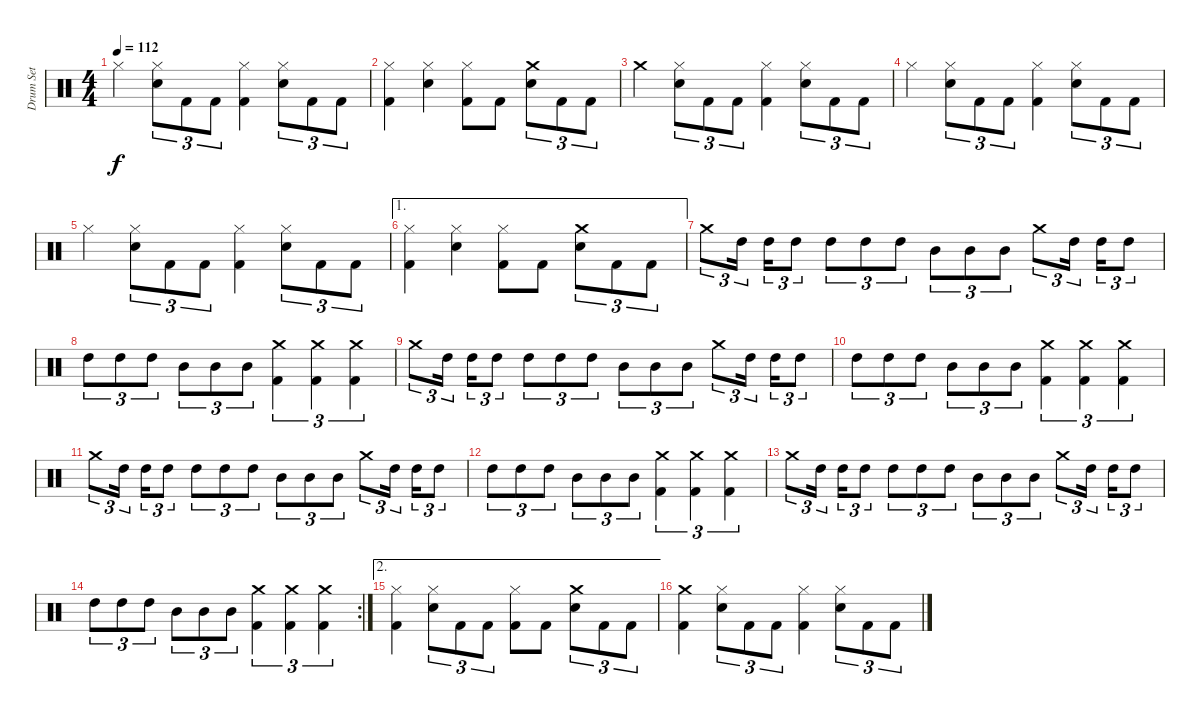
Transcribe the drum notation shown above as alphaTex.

\track ("Drum Set" "Drum Set") {instrument percussion}
\staff {score}
\articulation defaults
\ts (4 4)
\tempo 112
\clef neutral
\ks c "Hi-Hat (closed)".4{dy f}
("Hi-Hat (closed)" "Snare (hit) 2").8{tu (3 2)} "Kick (hit) 2".8{tu (3 2)} "Kick (hit) 2".8{tu (3 2)} ("Hi-Hat (closed)" "Kick (hit) 2").4 ("Hi-Hat (closed)" "Snare (hit) 2").8{tu (3 2)} "Kick (hit) 2".8{tu (3 2)} "Kick (hit) 2".8{tu (3 2)} |
("Hi-Hat (closed)" "Kick (hit) 2").4 ("Hi-Hat (closed)" "Snare (hit) 2").4 ("Hi-Hat (closed)" "Kick (hit) 2").8 "Kick (hit) 2".8 ("Crash medium (hit)" "Snare (hit) 2").8{tu (3 2)} "Kick (hit) 2".8{tu (3 2)} "Kick (hit) 2".8{tu (3 2)} |
"Crash medium (hit)".4 ("Hi-Hat (closed)" "Snare (hit) 2").8{tu (3 2)} "Kick (hit) 2".8{tu (3 2)} "Kick (hit) 2".8{tu (3 2)} ("Hi-Hat (closed)" "Kick (hit) 2").4 ("Hi-Hat (closed)" "Snare (hit) 2").8{tu (3 2)} "Kick (hit) 2".8{tu (3 2)} "Kick (hit) 2".8{tu (3 2)} |
"Hi-Hat (closed)".4 ("Hi-Hat (closed)" "Snare (hit) 2").8{tu (3 2)} "Kick (hit) 2".8{tu (3 2)} "Kick (hit) 2".8{tu (3 2)} ("Hi-Hat (closed)" "Kick (hit) 2").4 ("Hi-Hat (closed)" "Snare (hit) 2").8{tu (3 2)} "Kick (hit) 2".8{tu (3 2)} "Kick (hit) 2".8{tu (3 2)} |
"Hi-Hat (closed)".4 ("Hi-Hat (closed)" "Snare (hit) 2").8{tu (3 2)} "Kick (hit) 2".8{tu (3 2)} "Kick (hit) 2".8{tu (3 2)} ("Hi-Hat (closed)" "Kick (hit) 2").4 ("Hi-Hat (closed)" "Snare (hit) 2").8{tu (3 2)} "Kick (hit) 2".8{tu (3 2)} "Kick (hit) 2".8{tu (3 2)} |
\ae 1
("Hi-Hat (closed)" "Kick (hit) 2").4 ("Hi-Hat (closed)" "Snare (hit) 2").4 ("Hi-Hat (closed)" "Kick (hit) 2").8 "Kick (hit) 2".8 ("Crash medium (hit)" "Snare (hit) 2").8{tu (3 2)} "Kick (hit) 2".8{tu (3 2)} "Kick (hit) 2".8{tu (3 2)} |
"Crash medium (hit)".8{tu (3 2)} "High Tom (hit)".16{tu (3 2)} "High Tom (hit)".16{tu (3 2)} "High Tom (hit)".8{tu (3 2)} "High Tom (hit)".8{tu (3 2)} "High Tom (hit)".8{tu (3 2)} "High Tom (hit)".8{tu (3 2)} "Mid Tom (hit)".8{tu (3 2)} "Mid Tom (hit)".8{tu (3 2)} "Mid Tom (hit)".8{tu (3 2)} "Crash medium (hit)".8{tu (3 2)} "High Tom (hit)".16{tu (3 2)} "High Tom (hit)".16{tu (3 2)} "High Tom (hit)".8{tu (3 2)} |
"High Tom (hit)".8{tu (3 2)} "High Tom (hit)".8{tu (3 2)} "High Tom (hit)".8{tu (3 2)} "Mid Tom (hit)".8{tu (3 2)} "Mid Tom (hit)".8{tu (3 2)} "Mid Tom (hit)".8{tu (3 2)} ("Crash medium (hit)" "Kick (hit) 2").4{tu (3 2)} ("Crash medium (hit)" "Kick (hit) 2").4{tu (3 2)} ("Crash medium (hit)" "Kick (hit) 2").4{tu (3 2)} |
"Crash medium (hit)".8{tu (3 2)} "High Tom (hit)".16{tu (3 2)} "High Tom (hit)".16{tu (3 2)} "High Tom (hit)".8{tu (3 2)} "High Tom (hit)".8{tu (3 2)} "High Tom (hit)".8{tu (3 2)} "High Tom (hit)".8{tu (3 2)} "Mid Tom (hit)".8{tu (3 2)} "Mid Tom (hit)".8{tu (3 2)} "Mid Tom (hit)".8{tu (3 2)} "Crash medium (hit)".8{tu (3 2)} "High Tom (hit)".16{tu (3 2)} "High Tom (hit)".16{tu (3 2)} "High Tom (hit)".8{tu (3 2)} |
"High Tom (hit)".8{tu (3 2)} "High Tom (hit)".8{tu (3 2)} "High Tom (hit)".8{tu (3 2)} "Mid Tom (hit)".8{tu (3 2)} "Mid Tom (hit)".8{tu (3 2)} "Mid Tom (hit)".8{tu (3 2)} ("Crash medium (hit)" "Kick (hit) 2").4{tu (3 2)} ("Crash medium (hit)" "Kick (hit) 2").4{tu (3 2)} ("Crash medium (hit)" "Kick (hit) 2").4{tu (3 2)} |
"Crash medium (hit)".8{tu (3 2)} "High Tom (hit)".16{tu (3 2)} "High Tom (hit)".16{tu (3 2)} "High Tom (hit)".8{tu (3 2)} "High Tom (hit)".8{tu (3 2)} "High Tom (hit)".8{tu (3 2)} "High Tom (hit)".8{tu (3 2)} "Mid Tom (hit)".8{tu (3 2)} "Mid Tom (hit)".8{tu (3 2)} "Mid Tom (hit)".8{tu (3 2)} "Crash medium (hit)".8{tu (3 2)} "High Tom (hit)".16{tu (3 2)} "High Tom (hit)".16{tu (3 2)} "High Tom (hit)".8{tu (3 2)} |
"High Tom (hit)".8{tu (3 2)} "High Tom (hit)".8{tu (3 2)} "High Tom (hit)".8{tu (3 2)} "Mid Tom (hit)".8{tu (3 2)} "Mid Tom (hit)".8{tu (3 2)} "Mid Tom (hit)".8{tu (3 2)} ("Crash medium (hit)" "Kick (hit) 2").4{tu (3 2)} ("Crash medium (hit)" "Kick (hit) 2").4{tu (3 2)} ("Crash medium (hit)" "Kick (hit) 2").4{tu (3 2)} |
"Crash medium (hit)".8{tu (3 2)} "High Tom (hit)".16{tu (3 2)} "High Tom (hit)".16{tu (3 2)} "High Tom (hit)".8{tu (3 2)} "High Tom (hit)".8{tu (3 2)} "High Tom (hit)".8{tu (3 2)} "High Tom (hit)".8{tu (3 2)} "Mid Tom (hit)".8{tu (3 2)} "Mid Tom (hit)".8{tu (3 2)} "Mid Tom (hit)".8{tu (3 2)} "Crash medium (hit)".8{tu (3 2)} "High Tom (hit)".16{tu (3 2)} "High Tom (hit)".16{tu (3 2)} "High Tom (hit)".8{tu (3 2)} |
\rc 2 "High Tom (hit)".8{tu (3 2)} "High Tom (hit)".8{tu (3 2)} "High Tom (hit)".8{tu (3 2)} "Mid Tom (hit)".8{tu (3 2)} "Mid Tom (hit)".8{tu (3 2)} "Mid Tom (hit)".8{tu (3 2)}
("Crash medium (hit)" "Kick (hit) 2").4{tu (3 2)} ("Crash medium (hit)" "Kick (hit) 2").4{tu (3 2)} ("Crash medium (hit)" "Kick (hit) 2").4{tu (3 2)} |
\ae 2
("Hi-Hat (closed)" "Kick (hit) 2").4 ("Hi-Hat (closed)" "Snare (hit) 2").8{tu (3 2)} "Kick (hit) 2".8{tu (3 2)} "Kick (hit) 2".8{tu (3 2)} ("Hi-Hat (closed)" "Kick (hit) 2").8 "Kick (hit) 2".8 ("Crash medium (hit)" "Snare (hit) 2").8{tu (3 2)} "Kick (hit) 2".8{tu (3 2)} "Kick (hit) 2".8{tu (3 2)} |
("Crash medium (hit)" "Kick (hit) 2").4 ("Hi-Hat (closed)" "Snare (hit) 2").8{tu (3 2)} "Kick (hit) 2".8{tu (3 2)} "Kick (hit) 2".8{tu (3 2)} ("Hi-Hat (closed)" "Kick (hit) 2").4 ("Hi-Hat (closed)" "Snare (hit) 2").8{tu (3 2)} "Kick (hit) 2".8{tu (3 2)} "Kick (hit) 2".8{tu (3 2)}
